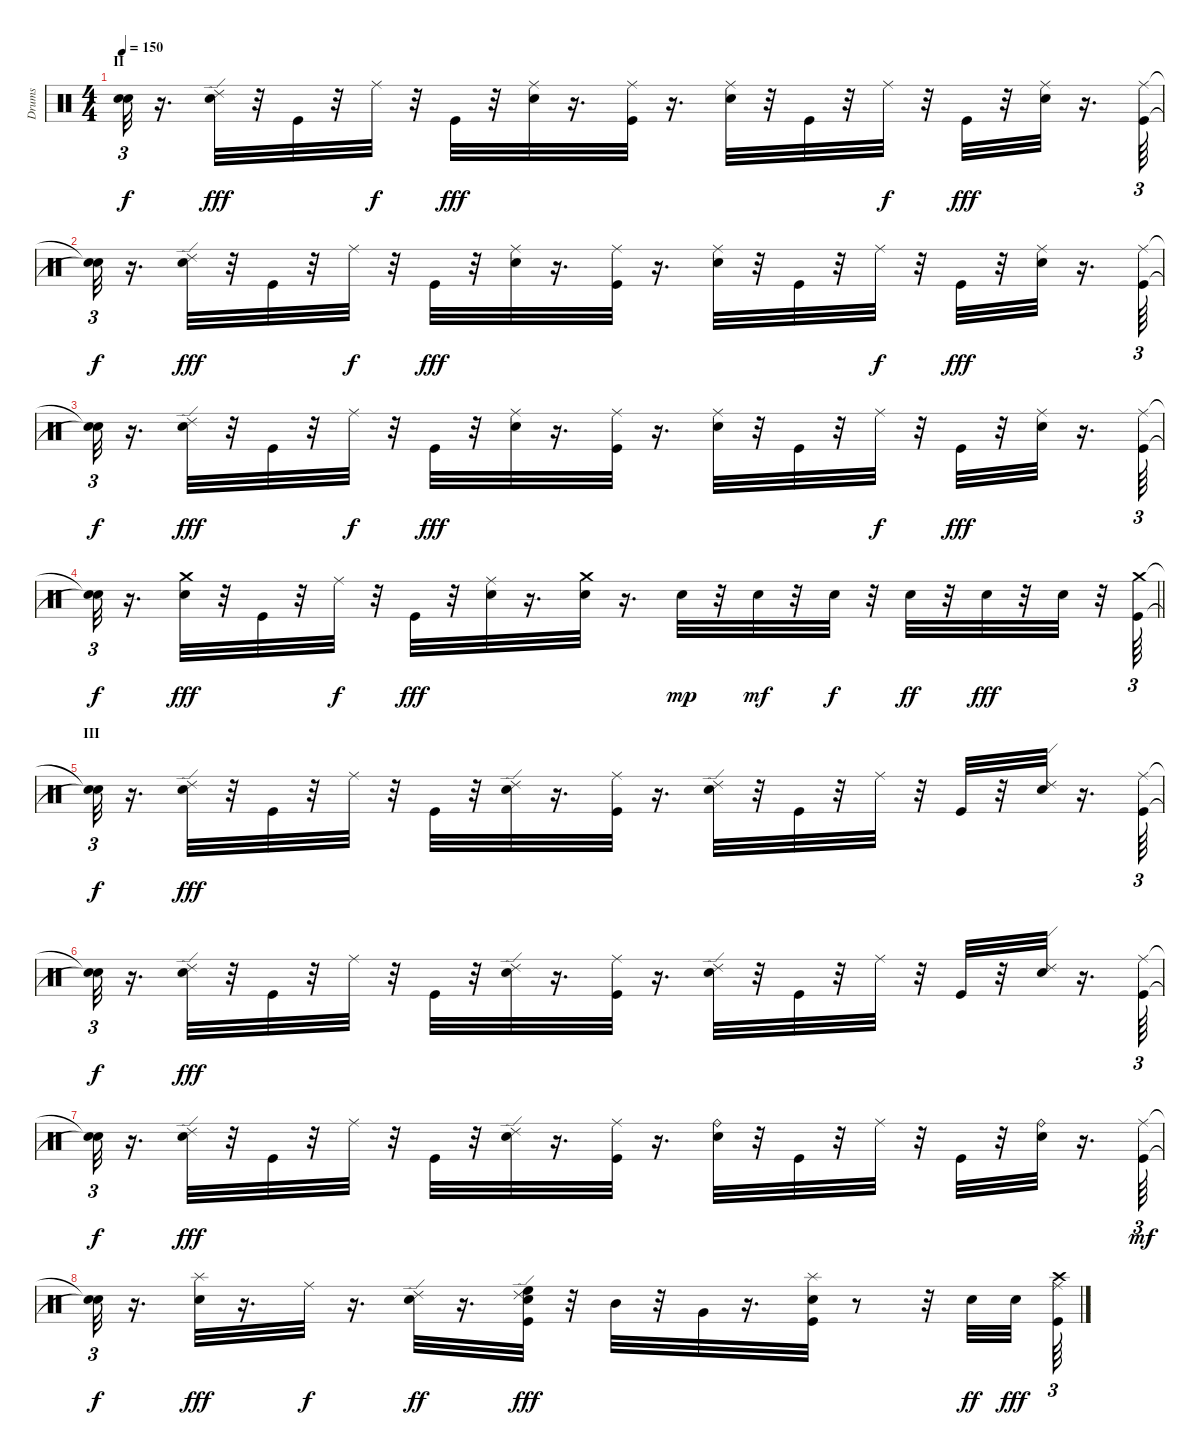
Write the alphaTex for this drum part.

\track ("Drums" "Drums") {instrument percussion}
\staff {score}
\articulation defaults
\ts (4 4)
\section ("" "II")
\tempo 150
\clef neutral
\ks c
("Snare (hit)"{t} "Snare (hit)"{t}).32{tu (3 2) dy f} r.16{d} ("Electric Snare (hit)" "Ride (edge) 2").32{dy fff} r.32 "Kick (hit)".32 r.32 "Ride (middle)".32{dy f} r.32 "Kick (hit)".32{dy fff} r.32 ("Electric Snare (hit)" "Ride (middle)").32 r.16{d} ("Ride (middle)" "Kick (hit)").32 r.16{d} ("Electric Snare (hit)" "Ride (middle)").32 r.32 "Kick (hit)".32 r.32 "Ride (middle)".32{dy f} r.32 "Kick (hit)".32{dy fff} r.32 ("Electric Snare (hit)" "Ride (middle)").32 r.16{d} ("Ride (middle)" "Kick (hit)").64{tu (3 2)} |
("Snare (hit)"{t} "Snare (hit)"{t}).32{tu (3 2) dy f} r.16{d} ("Electric Snare (hit)" "Ride (edge) 2").32{dy fff} r.32 "Kick (hit)".32 r.32 "Ride (middle)".32{dy f} r.32 "Kick (hit)".32{dy fff} r.32 ("Electric Snare (hit)" "Ride (middle)").32 r.16{d} ("Kick (hit)" "Ride (middle)").32 r.16{d} ("Electric Snare (hit)" "Ride (middle)").32 r.32 "Kick (hit)".32 r.32 "Ride (middle)".32{dy f} r.32 "Kick (hit)".32{dy fff} r.32 ("Electric Snare (hit)" "Ride (middle)").32 r.16{d} ("Ride (middle)" "Kick (hit)").64{tu (3 2)} |
("Snare (hit)"{t} "Snare (hit)"{t}).32{tu (3 2) dy f} r.16{d} ("Electric Snare (hit)" "Ride (edge) 2").32{dy fff} r.32 "Kick (hit)".32 r.32 "Ride (middle)".32{dy f} r.32 "Kick (hit)".32{dy fff} r.32 ("Electric Snare (hit)" "Ride (middle)").32 r.16{d} ("Kick (hit)" "Ride (middle)").32 r.16{d} ("Electric Snare (hit)" "Ride (middle)").32 r.32 "Kick (hit)".32 r.32 "Ride (middle)".32{dy f} r.32 "Kick (hit)".32{dy fff} r.32 ("Electric Snare (hit)" "Ride (middle)").32 r.16{d} ("Kick (hit)" "Ride (middle)").64{tu (3 2)} |
\barLineRight lightlight
("Snare (hit)"{t} "Snare (hit)"{t}).32{tu (3 2) dy f} r.16{d} ("Electric Snare (hit)" "Crash medium (hit)").32{dy fff} r.32 "Kick (hit)".32 r.32 "Ride (middle)".32{dy f} r.32 "Kick (hit)".32{dy fff} r.32 ("Electric Snare (hit)" "Ride (middle)").32 r.16{d} ("Electric Snare (hit)" "Crash medium (hit)").32 r.16{d} "Electric Snare (hit)".32{dy mp} r.32 "Electric Snare (hit)".32{dy mf} r.32 "Electric Snare (hit)".32{dy f} r.32 "Electric Snare (hit)".32{dy ff} r.32 "Electric Snare (hit)".32{dy fff} r.32 "Electric Snare (hit)".32 r.32 ("Kick (hit)" "Crash medium (hit)").64{tu (3 2)} |
\section ("" "III")
("Snare (hit)"{t} "Snare (hit)"{t}).32{tu (3 2) dy f} r.16{d} ("Electric Snare (hit)" "Ride (edge) 2").32{dy fff} r.32 "Kick (hit)".32 r.32 "Ride (middle)".32 r.32 "Kick (hit)".32 r.32 ("Electric Snare (hit)" "Ride (edge) 2").32 r.16{d} ("Ride (middle)" "Kick (hit)").32 r.16{d} ("Electric Snare (hit)" "Ride (edge) 2").32 r.32 "Kick (hit)".32 r.32 "Ride (middle)".32 r.32 "Kick (hit)".32 r.32 ("Electric Snare (hit)" "Ride (edge) 2").32 r.16{d} ("Kick (hit)" "Ride (middle)").64{tu (3 2)} |
("Snare (hit)"{t} "Snare (hit)"{t}).32{tu (3 2) dy f} r.16{d} ("Electric Snare (hit)" "Ride (edge) 2").32{dy fff} r.32 "Kick (hit)".32 r.32 "Ride (middle)".32 r.32 "Kick (hit)".32 r.32 ("Electric Snare (hit)" "Ride (edge) 2").32 r.16{d} ("Kick (hit)" "Ride (middle)").32 r.16{d} ("Electric Snare (hit)" "Ride (edge) 2").32 r.32 "Kick (hit)".32 r.32 "Ride (middle)".32 r.32 "Kick (hit)".32 r.32 ("Electric Snare (hit)" "Ride (edge) 2").32 r.16{d} ("Kick (hit)" "Ride (middle)").64{tu (3 2)} |
("Snare (hit)"{t} "Snare (hit)"{t}).32{tu (3 2) dy f} r.16{d} ("Electric Snare (hit)" "Ride (edge) 2").32{dy fff} r.32 "Kick (hit)".32 r.32 "Ride (middle)".32 r.32 "Kick (hit)".32 r.32 ("Electric Snare (hit)" "Ride (edge) 2").32 r.16{d} ("Kick (hit)" "Ride (middle)").32 r.16{d} ("Electric Snare (hit)" "Ride (bell)").32 r.32 "Kick (hit)".32 r.32 "Ride (middle)".32 r.32 "Kick (hit)".32 r.32 ("Electric Snare (hit)" "Ride (bell)").32 r.16{d} ("Kick (hit)" "Ride (middle)").64{tu (3 2) dy mf} |
("Snare (hit)"{t} "Snare (hit)"{t}).32{tu (3 2) dy f} r.16{d} ("Electric Snare (hit)" "Splash (hit)").32{dy fff} r.16{d} "Ride (middle)".32{dy f} r.16{d} ("Electric Snare (hit)" "Ride (edge) 2").32{dy ff} r.16{d} ("Electric Snare (hit)" "Kick (hit)" "Ride (edge) 2" "High Floor Tom (hit)").32{dy fff} r.32 "Mid Tom (hit)".32 r.32 "Very Low Tom (hit)".32 r.16{d} ("Electric Snare (hit)" "Kick (hit)" "Splash (hit)").32 r.8 r.32 "Electric Snare (hit)".32{dy ff} "Electric Snare (hit)".32{dy fff beam splitsecondary} ("Ride (middle)" "Kick (hit)" "Crash high (hit)").64{tu (3 2)}
